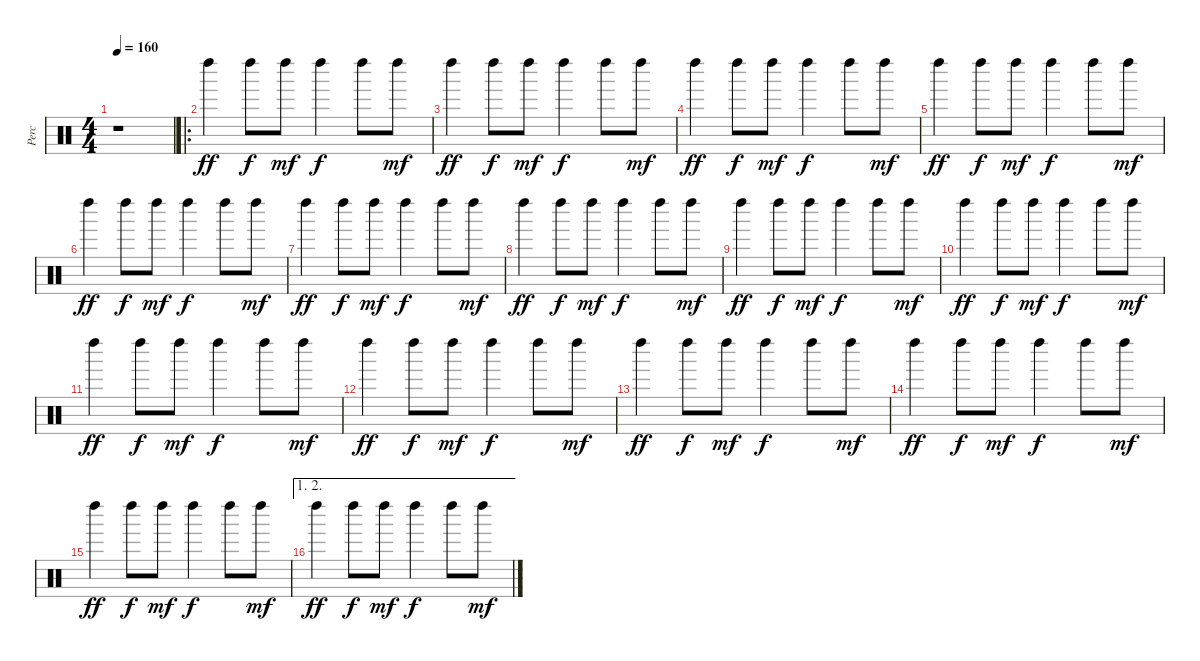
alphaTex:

\track ("Perc" "Perc") {instrument percussion}
\staff {score}
\articulation defaults
\ts (4 4)
\tempo 160
\clef neutral
\ks c
r.1{dy ff} |
\ro "Left Maraca (hit)".4 "Left Maraca (hit)".8{dy f} "Left Maraca (hit)".8{dy mf} "Left Maraca (hit)".4{dy f} "Left Maraca (hit)".8 "Left Maraca (hit)".8{dy mf}
|
"Left Maraca (hit)".4{dy ff} "Left Maraca (hit)".8{dy f} "Left Maraca (hit)".8{dy mf} "Left Maraca (hit)".4{dy f} "Left Maraca (hit)".8 "Left Maraca (hit)".8{dy mf} |
"Left Maraca (hit)".4{dy ff} "Left Maraca (hit)".8{dy f} "Left Maraca (hit)".8{dy mf} "Left Maraca (hit)".4{dy f} "Left Maraca (hit)".8 "Left Maraca (hit)".8{dy mf} |
"Left Maraca (hit)".4{dy ff} "Left Maraca (hit)".8{dy f} "Left Maraca (hit)".8{dy mf} "Left Maraca (hit)".4{dy f} "Left Maraca (hit)".8 "Left Maraca (hit)".8{dy mf} |
"Left Maraca (hit)".4{dy ff} "Left Maraca (hit)".8{dy f} "Left Maraca (hit)".8{dy mf} "Left Maraca (hit)".4{dy f} "Left Maraca (hit)".8 "Left Maraca (hit)".8{dy mf} |
"Left Maraca (hit)".4{dy ff} "Left Maraca (hit)".8{dy f} "Left Maraca (hit)".8{dy mf} "Left Maraca (hit)".4{dy f} "Left Maraca (hit)".8 "Left Maraca (hit)".8{dy mf} |
"Left Maraca (hit)".4{dy ff} "Left Maraca (hit)".8{dy f} "Left Maraca (hit)".8{dy mf} "Left Maraca (hit)".4{dy f} "Left Maraca (hit)".8 "Left Maraca (hit)".8{dy mf} |
"Left Maraca (hit)".4{dy ff} "Left Maraca (hit)".8{dy f} "Left Maraca (hit)".8{dy mf} "Left Maraca (hit)".4{dy f} "Left Maraca (hit)".8 "Left Maraca (hit)".8{dy mf} |
"Left Maraca (hit)".4{dy ff} "Left Maraca (hit)".8{dy f} "Left Maraca (hit)".8{dy mf} "Left Maraca (hit)".4{dy f} "Left Maraca (hit)".8 "Left Maraca (hit)".8{dy mf} |
"Left Maraca (hit)".4{dy ff} "Left Maraca (hit)".8{dy f} "Left Maraca (hit)".8{dy mf} "Left Maraca (hit)".4{dy f} "Left Maraca (hit)".8 "Left Maraca (hit)".8{dy mf} |
"Left Maraca (hit)".4{dy ff} "Left Maraca (hit)".8{dy f} "Left Maraca (hit)".8{dy mf} "Left Maraca (hit)".4{dy f} "Left Maraca (hit)".8 "Left Maraca (hit)".8{dy mf} |
"Left Maraca (hit)".4{dy ff} "Left Maraca (hit)".8{dy f} "Left Maraca (hit)".8{dy mf} "Left Maraca (hit)".4{dy f} "Left Maraca (hit)".8 "Left Maraca (hit)".8{dy mf} |
"Left Maraca (hit)".4{dy ff} "Left Maraca (hit)".8{dy f} "Left Maraca (hit)".8{dy mf} "Left Maraca (hit)".4{dy f} "Left Maraca (hit)".8 "Left Maraca (hit)".8{dy mf} |
"Left Maraca (hit)".4{dy ff} "Left Maraca (hit)".8{dy f} "Left Maraca (hit)".8{dy mf} "Left Maraca (hit)".4{dy f} "Left Maraca (hit)".8 "Left Maraca (hit)".8{dy mf} |
\ae (1 2)
"Left Maraca (hit)".4{dy ff} "Left Maraca (hit)".8{dy f} "Left Maraca (hit)".8{dy mf} "Left Maraca (hit)".4{dy f} "Left Maraca (hit)".8 "Left Maraca (hit)".8{dy mf}
